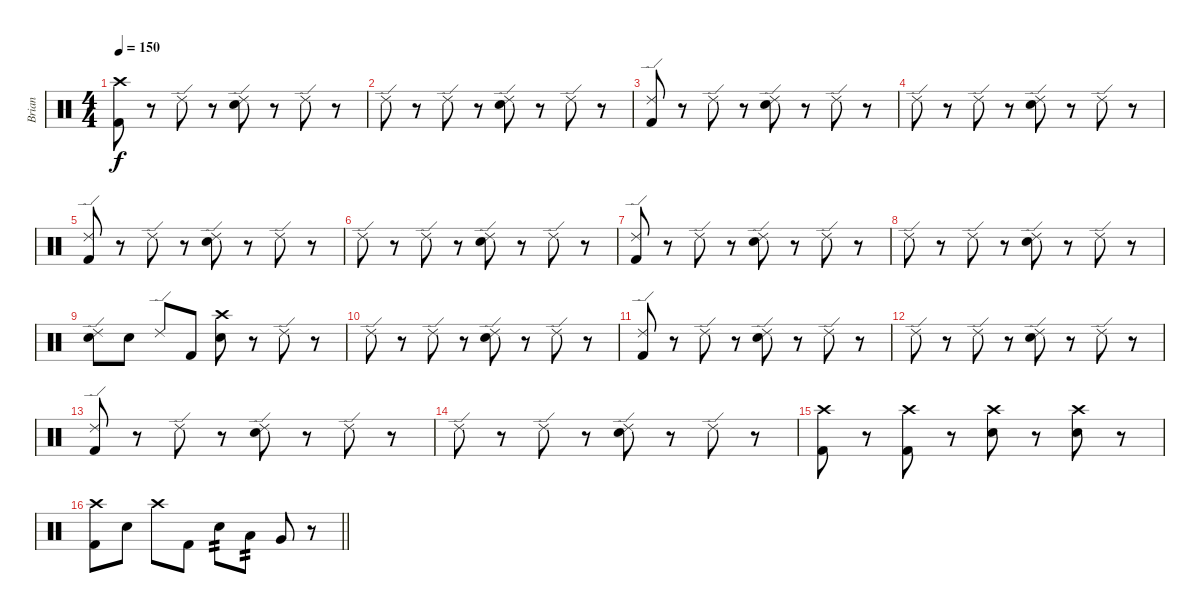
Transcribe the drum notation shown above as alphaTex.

\track ("Brian" "Brian") {instrument percussion}
\staff {score}
\articulation defaults
\ts (4 4)
\tempo 150
\clef neutral
\ks c
("Crash high (hit)" "Kick (hit) 2").8{dy f} r.8 "Ride (edge) 2".8 r.8 ("Ride (edge) 2" "Snare (hit) 2").8 r.8 "Ride (edge) 2".8 r.8 |
"Ride (edge) 2".8 r.8 "Ride (edge) 2".8 r.8 ("Ride (edge) 2" "Snare (hit) 2").8 r.8 "Ride (edge) 2".8 r.8 |
("Ride (edge) 2" "Kick (hit) 2").8 r.8 "Ride (edge) 2".8 r.8 ("Ride (edge) 2" "Snare (hit) 2").8 r.8 "Ride (edge) 2".8 r.8 |
"Ride (edge) 2".8 r.8 "Ride (edge) 2".8 r.8 ("Ride (edge) 2" "Snare (hit) 2").8 r.8 "Ride (edge) 2".8 r.8 |
("Ride (edge) 2" "Kick (hit) 2").8 r.8 "Ride (edge) 2".8 r.8 ("Ride (edge) 2" "Snare (hit) 2").8 r.8 "Ride (edge) 2".8 r.8 |
"Ride (edge) 2".8 r.8 "Ride (edge) 2".8 r.8 ("Ride (edge) 2" "Snare (hit) 2").8 r.8 "Ride (edge) 2".8 r.8 |
("Ride (edge) 2" "Kick (hit) 2").8 r.8 "Ride (edge) 2".8 r.8 ("Ride (edge) 2" "Snare (hit) 2").8 r.8 "Ride (edge) 2".8 r.8 |
"Ride (edge) 2".8 r.8 "Ride (edge) 2".8 r.8 ("Ride (edge) 2" "Snare (hit) 2").8 r.8 "Ride (edge) 2".8 r.8 |
("Ride (edge) 2" "Snare (hit) 2").8 "Snare (hit) 2".8 "Ride (edge) 2".8 "Kick (hit) 2".8 ("Crash high (hit)" "Snare (hit) 2").8 r.8 "Ride (edge) 2".8 r.8 |
"Ride (edge) 2".8 r.8 "Ride (edge) 2".8 r.8 ("Ride (edge) 2" "Snare (hit) 2").8 r.8 "Ride (edge) 2".8 r.8 |
("Ride (edge) 2" "Kick (hit) 2").8 r.8 "Ride (edge) 2".8 r.8 ("Ride (edge) 2" "Snare (hit) 2").8 r.8 "Ride (edge) 2".8 r.8 |
"Ride (edge) 2".8 r.8 "Ride (edge) 2".8 r.8 ("Ride (edge) 2" "Snare (hit) 2").8 r.8 "Ride (edge) 2".8 r.8 |
("Ride (edge) 2" "Kick (hit) 2").8 r.8 "Ride (edge) 2".8 r.8 ("Ride (edge) 2" "Snare (hit) 2").8 r.8 "Ride (edge) 2".8 r.8 |
"Ride (edge) 2".8 r.8 "Ride (edge) 2".8 r.8 ("Ride (edge) 2" "Snare (hit) 2").8 r.8 "Ride (edge) 2".8 r.8 |
("Crash high (hit)" "Kick (hit) 2").8 r.8 ("Crash high (hit)" "Kick (hit) 2").8 r.8 ("Crash high (hit)" "Snare (hit) 2").8 r.8 ("Crash high (hit)" "Snare (hit) 2").8 r.8 |
\barLineRight lightlight
("Crash high (hit)" "Kick (hit) 2").8 "Snare (hit) 2".8 "Crash high (hit)".8 "Kick (hit) 2".8 "Snare (hit) 2".8{tp 2} "Low Tom (hit)".8{tp 2} "Very Low Tom (hit)".8 r.8
